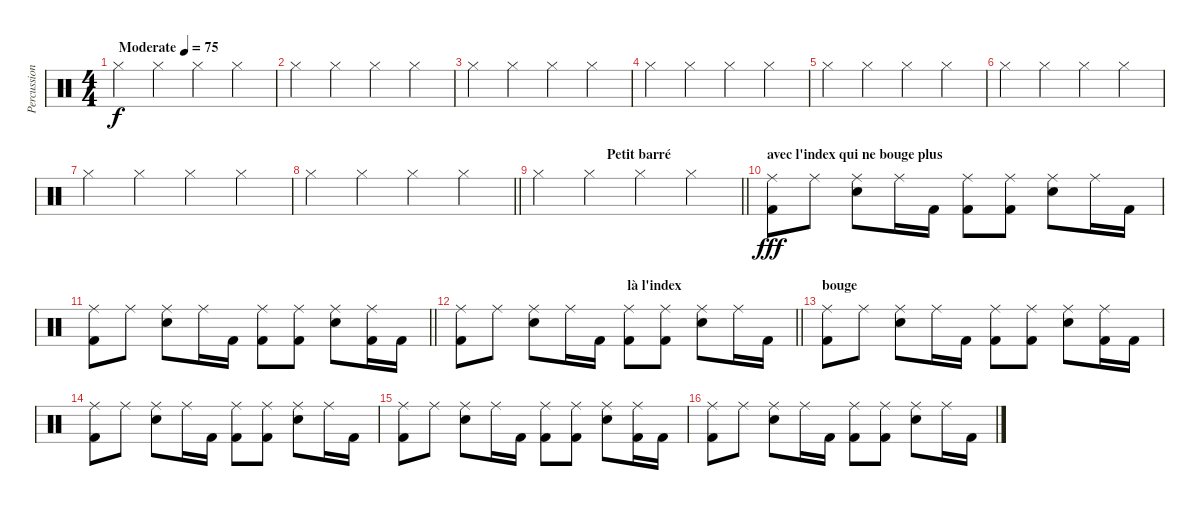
\track ("Percussions" "Percussion") {instrument percussion}
\staff {score}
\articulation defaults
\ts (4 4)
\tempo (75 "Moderate")
\clef neutral
\ks c "Hi-Hat (closed)".4{dy f} "Hi-Hat (closed)".4 "Hi-Hat (closed)".4 "Hi-Hat (closed)".4
|
"Hi-Hat (closed)".4 "Hi-Hat (closed)".4 "Hi-Hat (closed)".4 "Hi-Hat (closed)".4 |
"Hi-Hat (closed)".4 "Hi-Hat (closed)".4 "Hi-Hat (closed)".4 "Hi-Hat (closed)".4 |
"Hi-Hat (closed)".4 "Hi-Hat (closed)".4 "Hi-Hat (closed)".4 "Hi-Hat (closed)".4 |
"Hi-Hat (closed)".4 "Hi-Hat (closed)".4 "Hi-Hat (closed)".4 "Hi-Hat (closed)".4 |
"Hi-Hat (closed)".4 "Hi-Hat (closed)".4 "Hi-Hat (closed)".4 "Hi-Hat (closed)".4 |
"Hi-Hat (closed)".4 "Hi-Hat (closed)".4 "Hi-Hat (closed)".4 "Hi-Hat (closed)".4 |
\barLineRight lightlight "Hi-Hat (closed)".4 "Hi-Hat (closed)".4 "Hi-Hat (closed)".4 "Hi-Hat (closed)".4
|
\section ("" "                     Petit barré")
\barLineRight lightlight "Hi-Hat (closed)".4 "Hi-Hat (closed)".4 "Hi-Hat (closed)".4 "Hi-Hat (closed)".4
|
\section ("" "avec l'index qui ne bouge plus ")
("Kick (hit) 2" "Ride (middle)").8{dy fff} "Ride (middle)".8 ("Ride (middle)" "Snare (hit) 2").8 "Ride (middle)".16 "Kick (hit) 2".16 ("Ride (middle)" "Kick (hit) 2").8 ("Kick (hit) 2" "Ride (middle)").8 ("Ride (middle)" "Snare (hit) 2").8 "Ride (middle)".16 "Kick (hit) 2".16 |
\barLineRight lightlight
("Kick (hit) 2" "Ride (middle)").8 "Ride (middle)".8 ("Ride (middle)" "Snare (hit) 2").8 "Ride (middle)".16 "Kick (hit) 2".16 ("Ride (middle)" "Kick (hit) 2").8 ("Kick (hit) 2" "Ride (middle)").8 ("Ride (middle)" "Snare (hit) 2").8 ("Ride (middle)" "Kick (hit) 2").16 "Kick (hit) 2".16 |
\section ("" "                                                 là l'index ")
\barLineRight lightlight
("Kick (hit) 2" "Ride (middle)").8 "Ride (middle)".8 ("Ride (middle)" "Snare (hit) 2").8 "Ride (middle)".16 "Kick (hit) 2".16 ("Ride (middle)" "Kick (hit) 2").8 ("Kick (hit) 2" "Ride (middle)").8 ("Ride (middle)" "Snare (hit) 2").8 "Ride (middle)".16 "Kick (hit) 2".16 |
\section ("" "bouge")
("Kick (hit) 2" "Ride (middle)").8 "Ride (middle)".8 ("Ride (middle)" "Snare (hit) 2").8 "Ride (middle)".16 "Kick (hit) 2".16 ("Ride (middle)" "Kick (hit) 2").8 ("Kick (hit) 2" "Ride (middle)").8 ("Ride (middle)" "Snare (hit) 2").8 ("Ride (middle)" "Kick (hit) 2").16 "Kick (hit) 2".16 |
("Kick (hit) 2" "Ride (middle)").8 "Ride (middle)".8 ("Ride (middle)" "Snare (hit) 2").8 "Ride (middle)".16 "Kick (hit) 2".16 ("Ride (middle)" "Kick (hit) 2").8 ("Kick (hit) 2" "Ride (middle)").8 ("Ride (middle)" "Snare (hit) 2").8 "Ride (middle)".16 "Kick (hit) 2".16 |
("Kick (hit) 2" "Ride (middle)").8 "Ride (middle)".8 ("Ride (middle)" "Snare (hit) 2").8 "Ride (middle)".16 "Kick (hit) 2".16 ("Ride (middle)" "Kick (hit) 2").8 ("Kick (hit) 2" "Ride (middle)").8 ("Ride (middle)" "Snare (hit) 2").8 ("Ride (middle)" "Kick (hit) 2").16 "Kick (hit) 2".16 |
("Kick (hit) 2" "Ride (middle)").8 "Ride (middle)".8 ("Ride (middle)" "Snare (hit) 2").8 "Ride (middle)".16 "Kick (hit) 2".16 ("Ride (middle)" "Kick (hit) 2").8 ("Kick (hit) 2" "Ride (middle)").8 ("Ride (middle)" "Snare (hit) 2").8 "Ride (middle)".16 "Kick (hit) 2".16
